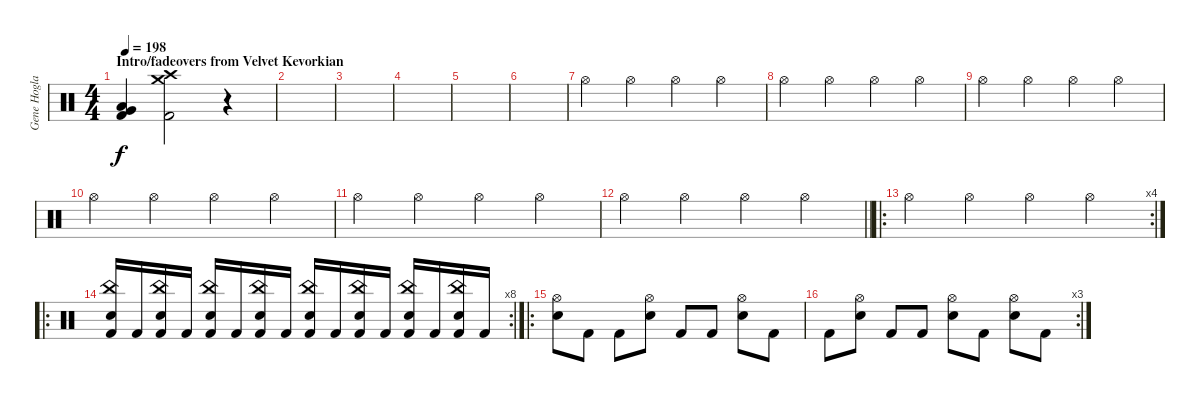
\track ("Gene Hoglan" "Gene Hogla") {instrument percussion}
\staff {score}
\articulation defaults
\ts (4 4)
\section ("" "Intro/fadeovers from Velvet Kevorkian")
\tempo 198
\clef neutral
\ks c
("Low Tom (hit)" "Very Low Tom (hit)" "Kick (hit) 2").4{dy f} ("Crash high (hit)" "Crash medium (hit)" "Kick (hit) 2").2 r.4 |
|
|
|
|
|
"Hi-Hat (open)".4 "Hi-Hat (open)".4 "Hi-Hat (open)".4 "Hi-Hat (open)".4 |
"Hi-Hat (open)".4 "Hi-Hat (open)".4 "Hi-Hat (open)".4 "Hi-Hat (open)".4 |
"Hi-Hat (open)".4 "Hi-Hat (open)".4 "Hi-Hat (open)".4 "Hi-Hat (open)".4 |
"Hi-Hat (open)".4 "Hi-Hat (open)".4 "Hi-Hat (open)".4 "Hi-Hat (open)".4 |
"Hi-Hat (open)".4 "Hi-Hat (open)".4 "Hi-Hat (open)".4 "Hi-Hat (open)".4 |
\barLineRight lightlight "Hi-Hat (open)".4 "Hi-Hat (open)".4 "Hi-Hat (open)".4 "Hi-Hat (open)".4
|
\ro
\rc 4 "Hi-Hat (open)".4 "Hi-Hat (open)".4 "Hi-Hat (open)".4 "Hi-Hat (open)".4
|
\ro
\rc 8
("China (hit)" "Snare (hit) 2" "Kick (hit) 2").16 "Kick (hit) 2".16 ("China (hit)" "Snare (hit) 2" "Kick (hit) 2").16 "Kick (hit) 2".16 ("China (hit)" "Snare (hit) 2" "Kick (hit) 2").16 "Kick (hit) 2".16 ("China (hit)" "Snare (hit) 2" "Kick (hit) 2").16 "Kick (hit) 2".16 ("China (hit)" "Snare (hit) 2" "Kick (hit) 2").16 "Kick (hit) 2".16 ("China (hit)" "Snare (hit) 2" "Kick (hit) 2").16 "Kick (hit) 2".16 ("China (hit)" "Snare (hit) 2" "Kick (hit) 2").16 "Kick (hit) 2".16 ("China (hit)" "Snare (hit) 2" "Kick (hit) 2").16 "Kick (hit) 2".16 |
\ro
("Hi-Hat (open)" "Snare (hit) 2").8 "Kick (hit) 2".8 "Kick (hit) 2".8 ("Hi-Hat (open)" "Snare (hit) 2").8 "Kick (hit) 2".8 "Kick (hit) 2".8 ("Hi-Hat (open)" "Snare (hit) 2").8 "Kick (hit) 2".8 |
\rc 3 "Kick (hit) 2".8
("Hi-Hat (open)" "Snare (hit) 2").8 "Kick (hit) 2".8 "Kick (hit) 2".8 ("Hi-Hat (open)" "Snare (hit) 2").8 "Kick (hit) 2".8 ("Hi-Hat (open)" "Snare (hit) 2").8 "Kick (hit) 2".8
